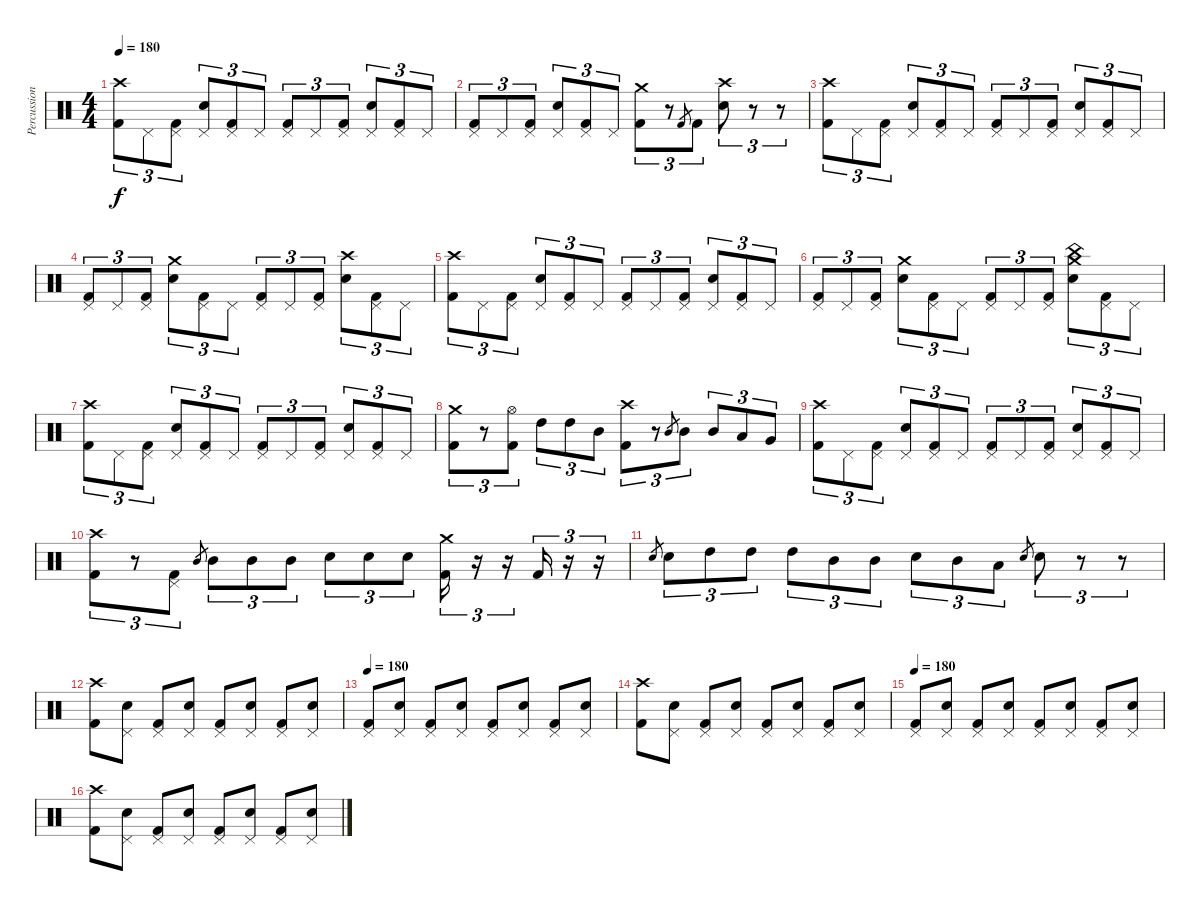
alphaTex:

\track ("Percussion" "Percussion") {instrument percussion}
\staff {score}
\articulation defaults
\ts (4 4)
\tempo 180
\clef neutral
\ks c
("Crash high (hit)" "Kick (hit) 2").8{tu (3 2) dy f} "Pedal Hi-Hat (hit)".8{tu (3 2)} ("Pedal Hi-Hat (hit)" "Kick (hit) 2").8{tu (3 2)} ("Pedal Hi-Hat (hit)" "Snare (hit) 2").8{tu (3 2)} ("Pedal Hi-Hat (hit)" "Kick (hit) 2").8{tu (3 2)} "Pedal Hi-Hat (hit)".8{tu (3 2)} ("Pedal Hi-Hat (hit)" "Kick (hit) 2").8{tu (3 2)} "Pedal Hi-Hat (hit)".8{tu (3 2)} ("Pedal Hi-Hat (hit)" "Kick (hit) 2").8{tu (3 2)} ("Pedal Hi-Hat (hit)" "Snare (hit) 2").8{tu (3 2)} ("Pedal Hi-Hat (hit)" "Kick (hit) 2").8{tu (3 2)} "Pedal Hi-Hat (hit)".8{tu (3 2)} |
("Pedal Hi-Hat (hit)" "Kick (hit) 2").8{tu (3 2)} "Pedal Hi-Hat (hit)".8{tu (3 2)} ("Pedal Hi-Hat (hit)" "Kick (hit) 2").8{tu (3 2)} ("Pedal Hi-Hat (hit)" "Snare (hit) 2").8{tu (3 2)} ("Pedal Hi-Hat (hit)" "Kick (hit) 2").8{tu (3 2)} "Pedal Hi-Hat (hit)".8{tu (3 2)} ("Crash medium (hit)" "Kick (hit) 2").8{tu (3 2)} r.8{tu (3 2)} "Kick (hit) 2".8{gr} "Kick (hit) 2".8{tu (3 2)} ("Crash high (hit)" "Snare (hit) 2").8{tu (3 2)} r.8{tu (3 2)} r.8{tu (3 2)} |
("Crash high (hit)" "Kick (hit) 2").8{tu (3 2)} "Pedal Hi-Hat (hit)".8{tu (3 2)} ("Pedal Hi-Hat (hit)" "Kick (hit) 2").8{tu (3 2)} ("Pedal Hi-Hat (hit)" "Snare (hit) 2").8{tu (3 2)} ("Pedal Hi-Hat (hit)" "Kick (hit) 2").8{tu (3 2)} "Pedal Hi-Hat (hit)".8{tu (3 2)} ("Pedal Hi-Hat (hit)" "Kick (hit) 2").8{tu (3 2)} "Pedal Hi-Hat (hit)".8{tu (3 2)} ("Pedal Hi-Hat (hit)" "Kick (hit) 2").8{tu (3 2)} ("Pedal Hi-Hat (hit)" "Snare (hit) 2").8{tu (3 2)} ("Pedal Hi-Hat (hit)" "Kick (hit) 2").8{tu (3 2)} "Pedal Hi-Hat (hit)".8{tu (3 2)} |
("Pedal Hi-Hat (hit)" "Kick (hit) 2").8{tu (3 2)} "Pedal Hi-Hat (hit)".8{tu (3 2)} ("Pedal Hi-Hat (hit)" "Kick (hit) 2").8{tu (3 2)} ("Crash medium (hit)" "Snare (hit) 2").8{tu (3 2)} ("Pedal Hi-Hat (hit)" "Kick (hit) 2").8{tu (3 2)} "Pedal Hi-Hat (hit)".8{tu (3 2)} ("Pedal Hi-Hat (hit)" "Kick (hit) 2").8{tu (3 2)} "Pedal Hi-Hat (hit)".8{tu (3 2)} ("Pedal Hi-Hat (hit)" "Kick (hit) 2").8{tu (3 2)} ("Crash high (hit)" "Snare (hit) 2").8{tu (3 2)} ("Pedal Hi-Hat (hit)" "Kick (hit) 2").8{tu (3 2)} "Pedal Hi-Hat (hit)".8{tu (3 2)} |
("Crash high (hit)" "Kick (hit) 2").8{tu (3 2)} "Pedal Hi-Hat (hit)".8{tu (3 2)} ("Pedal Hi-Hat (hit)" "Kick (hit) 2").8{tu (3 2)} ("Pedal Hi-Hat (hit)" "Snare (hit) 2").8{tu (3 2)} ("Pedal Hi-Hat (hit)" "Kick (hit) 2").8{tu (3 2)} "Pedal Hi-Hat (hit)".8{tu (3 2)} ("Pedal Hi-Hat (hit)" "Kick (hit) 2").8{tu (3 2)} "Pedal Hi-Hat (hit)".8{tu (3 2)} ("Pedal Hi-Hat (hit)" "Kick (hit) 2").8{tu (3 2)} ("Pedal Hi-Hat (hit)" "Snare (hit) 2").8{tu (3 2)} ("Pedal Hi-Hat (hit)" "Kick (hit) 2").8{tu (3 2)} "Pedal Hi-Hat (hit)".8{tu (3 2)} |
("Pedal Hi-Hat (hit)" "Kick (hit) 2").8{tu (3 2)} "Pedal Hi-Hat (hit)".8{tu (3 2)} ("Pedal Hi-Hat (hit)" "Kick (hit) 2").8{tu (3 2)} ("Crash medium (hit)" "Snare (hit) 2").8{tu (3 2)} ("Pedal Hi-Hat (hit)" "Kick (hit) 2").8{tu (3 2)} "Pedal Hi-Hat (hit)".8{tu (3 2)} ("Pedal Hi-Hat (hit)" "Kick (hit) 2").8{tu (3 2)} "Pedal Hi-Hat (hit)".8{tu (3 2)} ("Pedal Hi-Hat (hit)" "Kick (hit) 2").8{tu (3 2)} ("Crash medium (hit)" "China (hit)" "Snare (hit) 2").8{tu (3 2)} ("Pedal Hi-Hat (hit)" "Kick (hit) 2").8{tu (3 2)} "Pedal Hi-Hat (hit)".8{tu (3 2)} |
("Crash high (hit)" "Kick (hit) 2").8{tu (3 2)} "Pedal Hi-Hat (hit)".8{tu (3 2)} ("Pedal Hi-Hat (hit)" "Kick (hit) 2").8{tu (3 2)} ("Pedal Hi-Hat (hit)" "Snare (hit) 2").8{tu (3 2)} ("Pedal Hi-Hat (hit)" "Kick (hit) 2").8{tu (3 2)} "Pedal Hi-Hat (hit)".8{tu (3 2)} ("Pedal Hi-Hat (hit)" "Kick (hit) 2").8{tu (3 2)} "Pedal Hi-Hat (hit)".8{tu (3 2)} ("Pedal Hi-Hat (hit)" "Kick (hit) 2").8{tu (3 2)} ("Pedal Hi-Hat (hit)" "Snare (hit) 2").8{tu (3 2)} ("Pedal Hi-Hat (hit)" "Kick (hit) 2").8{tu (3 2)} "Pedal Hi-Hat (hit)".8{tu (3 2)} |
("Crash medium (hit)" "Kick (hit) 2").8{tu (3 2)} r.8{tu (3 2)} ("Hi-Hat (open)" "Kick (hit) 2").8{tu (3 2)} "High Tom (hit)".8{tu (3 2)} "High Tom (hit)".8{tu (3 2)} "Mid Tom (hit)".8{tu (3 2)} ("Crash high (hit)" "Kick (hit) 2").8{tu (3 2)} r.8{tu (3 2)} "Mid Tom (hit)".8{gr} "Mid Tom (hit)".8{tu (3 2)} "Mid Tom (hit)".8{tu (3 2)} "Low Tom (hit)".8{tu (3 2)} "Very Low Tom (hit)".8{tu (3 2)} |
("Crash high (hit)" "Kick (hit) 2").8{tu (3 2)} "Pedal Hi-Hat (hit)".8{tu (3 2)} ("Pedal Hi-Hat (hit)" "Kick (hit) 2").8{tu (3 2)} ("Pedal Hi-Hat (hit)" "Snare (hit) 2").8{tu (3 2)} ("Pedal Hi-Hat (hit)" "Kick (hit) 2").8{tu (3 2)} "Pedal Hi-Hat (hit)".8{tu (3 2)} ("Pedal Hi-Hat (hit)" "Kick (hit) 2").8{tu (3 2)} "Pedal Hi-Hat (hit)".8{tu (3 2)} ("Pedal Hi-Hat (hit)" "Kick (hit) 2").8{tu (3 2)} ("Pedal Hi-Hat (hit)" "Snare (hit) 2").8{tu (3 2)} ("Pedal Hi-Hat (hit)" "Kick (hit) 2").8{tu (3 2)} "Pedal Hi-Hat (hit)".8{tu (3 2)} |
("Crash high (hit)" "Kick (hit) 2").8{tu (3 2)} r.8{tu (3 2)} ("Pedal Hi-Hat (hit)" "Kick (hit) 2").8{tu (3 2)} "Mid Tom (hit)".8{gr} "Mid Tom (hit)".8{tu (3 2)} "Mid Tom (hit)".8{tu (3 2)} "Mid Tom (hit)".8{tu (3 2)} "Snare (hit) 2".8{tu (3 2)} "Snare (hit) 2".8{tu (3 2)} "Snare (hit) 2".8{tu (3 2)} ("Crash medium (hit)" "Kick (hit) 2").16{tu (3 2)} r.16{tu (3 2)} r.16{tu (3 2)} "Kick (hit) 2".16{tu (3 2)} r.16{tu (3 2)} r.16{tu (3 2)} |
"Snare (hit) 2".8{gr} "Snare (hit) 2".8{tu (3 2)} "High Tom (hit)".8{tu (3 2)} "High Tom (hit)".8{tu (3 2)} "High Tom (hit)".8{tu (3 2)} "Mid Tom (hit)".8{tu (3 2)} "Mid Tom (hit)".8{tu (3 2)} "Snare (hit) 2".8{tu (3 2)} "Mid Tom (hit)".8{tu (3 2)} "Low Tom (hit)".8{tu (3 2)} "Snare (hit) 2".8{gr} "Snare (hit) 2".8{tu (3 2)} r.8{tu (3 2)} r.8{tu (3 2)} |
("Crash high (hit)" "Kick (hit) 2").8 ("Pedal Hi-Hat (hit)" "Snare (hit) 2").8 ("Pedal Hi-Hat (hit)" "Kick (hit) 2").8 ("Pedal Hi-Hat (hit)" "Snare (hit) 2").8 ("Pedal Hi-Hat (hit)" "Kick (hit) 2").8 ("Pedal Hi-Hat (hit)" "Snare (hit) 2").8 ("Pedal Hi-Hat (hit)" "Kick (hit) 2").8 ("Pedal Hi-Hat (hit)" "Snare (hit) 2").8 |
\tempo 180
("Pedal Hi-Hat (hit)" "Kick (hit) 2").8 ("Pedal Hi-Hat (hit)" "Snare (hit) 2").8 ("Pedal Hi-Hat (hit)" "Kick (hit) 2").8 ("Pedal Hi-Hat (hit)" "Snare (hit) 2").8 ("Pedal Hi-Hat (hit)" "Kick (hit) 2").8 ("Pedal Hi-Hat (hit)" "Snare (hit) 2").8 ("Pedal Hi-Hat (hit)" "Kick (hit) 2").8 ("Pedal Hi-Hat (hit)" "Snare (hit) 2").8 |
("Crash high (hit)" "Kick (hit) 2").8 ("Pedal Hi-Hat (hit)" "Snare (hit) 2").8 ("Pedal Hi-Hat (hit)" "Kick (hit) 2").8 ("Pedal Hi-Hat (hit)" "Snare (hit) 2").8 ("Pedal Hi-Hat (hit)" "Kick (hit) 2").8 ("Pedal Hi-Hat (hit)" "Snare (hit) 2").8 ("Pedal Hi-Hat (hit)" "Kick (hit) 2").8 ("Pedal Hi-Hat (hit)" "Snare (hit) 2").8 |
\tempo 180
("Pedal Hi-Hat (hit)" "Kick (hit) 2").8 ("Pedal Hi-Hat (hit)" "Snare (hit) 2").8 ("Pedal Hi-Hat (hit)" "Kick (hit) 2").8 ("Pedal Hi-Hat (hit)" "Snare (hit) 2").8 ("Pedal Hi-Hat (hit)" "Kick (hit) 2").8 ("Pedal Hi-Hat (hit)" "Snare (hit) 2").8 ("Pedal Hi-Hat (hit)" "Kick (hit) 2").8 ("Pedal Hi-Hat (hit)" "Snare (hit) 2").8 |
("Crash high (hit)" "Kick (hit) 2").8 ("Pedal Hi-Hat (hit)" "Snare (hit) 2").8 ("Pedal Hi-Hat (hit)" "Kick (hit) 2").8 ("Pedal Hi-Hat (hit)" "Snare (hit) 2").8 ("Pedal Hi-Hat (hit)" "Kick (hit) 2").8 ("Pedal Hi-Hat (hit)" "Snare (hit) 2").8 ("Pedal Hi-Hat (hit)" "Kick (hit) 2").8 ("Pedal Hi-Hat (hit)" "Snare (hit) 2").8
